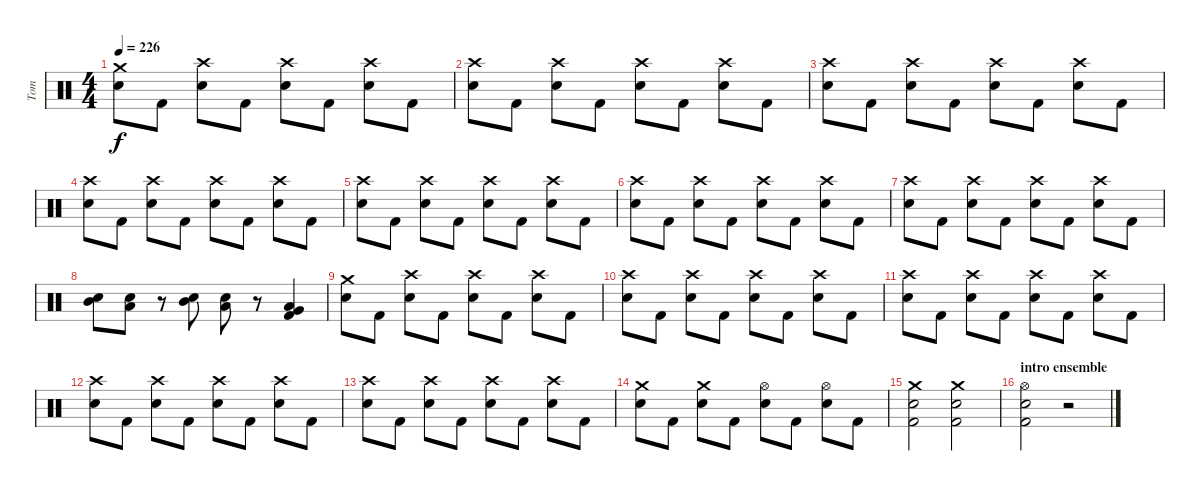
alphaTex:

\track ("Tom" "Tom") {instrument percussion}
\staff {score}
\articulation defaults
\ts (4 4)
\tempo 226
\clef neutral
\ks c
("Crash medium (hit)" "Electric Snare (hit)").8{dy f} "Kick (hit) 2".8 ("Crash high (hit)" "Electric Snare (hit)").8 "Kick (hit) 2".8 ("Crash high (hit)" "Electric Snare (hit)").8 "Kick (hit) 2".8 ("Crash high (hit)" "Electric Snare (hit)").8 "Kick (hit) 2".8 |
("Crash high (hit)" "Electric Snare (hit)").8 "Kick (hit) 2".8 ("Crash high (hit)" "Electric Snare (hit)").8 "Kick (hit) 2".8 ("Crash high (hit)" "Electric Snare (hit)").8 "Kick (hit) 2".8 ("Crash high (hit)" "Electric Snare (hit)").8 "Kick (hit) 2".8 |
("Crash high (hit)" "Electric Snare (hit)").8 "Kick (hit) 2".8 ("Crash high (hit)" "Electric Snare (hit)").8 "Kick (hit) 2".8 ("Crash high (hit)" "Electric Snare (hit)").8 "Kick (hit) 2".8 ("Crash high (hit)" "Electric Snare (hit)").8 "Kick (hit) 2".8 |
("Crash high (hit)" "Electric Snare (hit)").8 "Kick (hit) 2".8 ("Crash high (hit)" "Electric Snare (hit)").8 "Kick (hit) 2".8 ("Crash high (hit)" "Electric Snare (hit)").8 "Kick (hit) 2".8 ("Crash high (hit)" "Electric Snare (hit)").8 "Kick (hit) 2".8 |
("Crash high (hit)" "Electric Snare (hit)").8 "Kick (hit) 2".8 ("Crash high (hit)" "Electric Snare (hit)").8 "Kick (hit) 2".8 ("Crash high (hit)" "Electric Snare (hit)").8 "Kick (hit) 2".8 ("Crash high (hit)" "Electric Snare (hit)").8 "Kick (hit) 2".8 |
("Crash high (hit)" "Electric Snare (hit)").8 "Kick (hit) 2".8 ("Crash high (hit)" "Electric Snare (hit)").8 "Kick (hit) 2".8 ("Crash high (hit)" "Electric Snare (hit)").8 "Kick (hit) 2".8 ("Crash high (hit)" "Electric Snare (hit)").8 "Kick (hit) 2".8 |
("Crash high (hit)" "Electric Snare (hit)").8 "Kick (hit) 2".8 ("Crash high (hit)" "Electric Snare (hit)").8 "Kick (hit) 2".8 ("Crash high (hit)" "Electric Snare (hit)").8 "Kick (hit) 2".8 ("Crash high (hit)" "Electric Snare (hit)").8 "Kick (hit) 2".8 |
("Electric Snare (hit)" "Mid Tom (hit)").8 ("Electric Snare (hit)" "Low Tom (hit)").8 r.8 ("Electric Snare (hit)" "Mid Tom (hit)").8 ("Low Tom (hit)" "Electric Snare (hit)").8 r.8 ("Kick (hit) 2" "Low Tom (hit)" "Very Low Tom (hit)").4 |
("Crash medium (hit)" "Electric Snare (hit)").8 "Kick (hit) 2".8 ("Crash high (hit)" "Electric Snare (hit)").8 "Kick (hit) 2".8 ("Crash high (hit)" "Electric Snare (hit)").8 "Kick (hit) 2".8 ("Crash high (hit)" "Electric Snare (hit)").8 "Kick (hit) 2".8 |
("Crash high (hit)" "Electric Snare (hit)").8 "Kick (hit) 2".8 ("Crash high (hit)" "Electric Snare (hit)").8 "Kick (hit) 2".8 ("Crash high (hit)" "Electric Snare (hit)").8 "Kick (hit) 2".8 ("Crash high (hit)" "Electric Snare (hit)").8 "Kick (hit) 2".8 |
("Crash high (hit)" "Electric Snare (hit)").8 "Kick (hit) 2".8 ("Crash high (hit)" "Electric Snare (hit)").8 "Kick (hit) 2".8 ("Crash high (hit)" "Electric Snare (hit)").8 "Kick (hit) 2".8 ("Crash high (hit)" "Electric Snare (hit)").8 "Kick (hit) 2".8 |
("Crash high (hit)" "Electric Snare (hit)").8 "Kick (hit) 2".8 ("Crash high (hit)" "Electric Snare (hit)").8 "Kick (hit) 2".8 ("Crash high (hit)" "Electric Snare (hit)").8 "Kick (hit) 2".8 ("Crash high (hit)" "Electric Snare (hit)").8 "Kick (hit) 2".8 |
("Crash high (hit)" "Electric Snare (hit)").8 "Kick (hit) 2".8 ("Crash high (hit)" "Electric Snare (hit)").8 "Kick (hit) 2".8 ("Crash high (hit)" "Electric Snare (hit)").8 "Kick (hit) 2".8 ("Crash high (hit)" "Electric Snare (hit)").8 "Kick (hit) 2".8 |
("Crash medium (hit)" "Electric Snare (hit)").8 "Kick (hit) 2".8 ("Crash medium (hit)" "Electric Snare (hit)").8 "Kick (hit) 2".8 ("Hi-Hat (open)" "Electric Snare (hit)").8 "Kick (hit) 2".8 ("Hi-Hat (open)" "Electric Snare (hit)").8 "Kick (hit) 2".8 |
("Electric Snare (hit)" "Crash medium (hit)" "Kick (hit) 2").2 ("Electric Snare (hit)" "Crash medium (hit)" "Kick (hit) 2").2 |
\section ("" "intro ensemble")
("Hi-Hat (open)" "Kick (hit) 2" "Electric Snare (hit)").2 r.2
